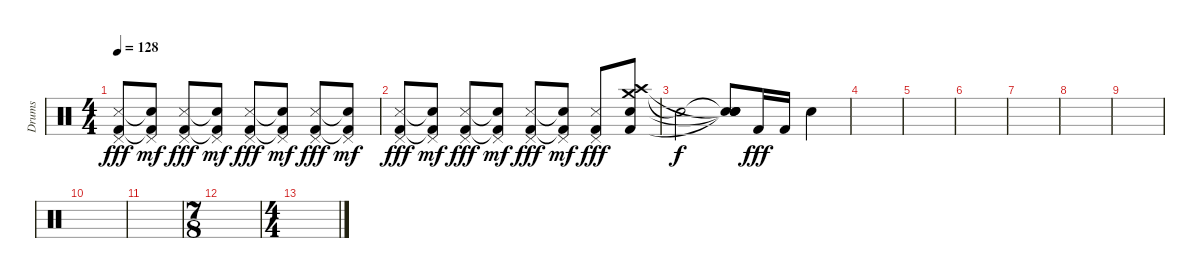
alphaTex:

\track ("Drums" "Drums") {instrument percussion}
\staff {score}
\articulation defaults
\ts (4 4)
\tempo 128
\clef neutral
\ks c
("Pedal Hi-Hat (hit)" "Snare (side stick) 3" "Kick (hit) 2").8{dy fff} ("Pedal Hi-Hat (hit)" "Snare (hit)"{t} "Kick (hit) 2"{t}).8{dy mf} ("Pedal Hi-Hat (hit)" "Snare (side stick) 3" "Kick (hit) 2").8{dy fff} ("Pedal Hi-Hat (hit)" "Snare (hit)"{t} "Kick (hit) 2"{t}).8{dy mf} ("Pedal Hi-Hat (hit)" "Snare (side stick) 3" "Kick (hit) 2").8{dy fff} ("Pedal Hi-Hat (hit)" "Snare (hit)"{t} "Kick (hit) 2"{t}).8{dy mf} ("Pedal Hi-Hat (hit)" "Snare (side stick) 3" "Kick (hit) 2").8{dy fff} ("Pedal Hi-Hat (hit)" "Snare (hit)"{t} "Kick (hit) 2"{t}).8{dy mf} |
("Pedal Hi-Hat (hit)" "Snare (side stick) 3" "Kick (hit) 2").8{dy fff} ("Pedal Hi-Hat (hit)" "Snare (hit)"{t} "Kick (hit) 2"{t}).8{dy mf} ("Pedal Hi-Hat (hit)" "Snare (side stick) 3" "Kick (hit) 2").8{dy fff} ("Pedal Hi-Hat (hit)" "Snare (hit)"{t} "Kick (hit) 2"{t}).8{dy mf} ("Pedal Hi-Hat (hit)" "Snare (side stick) 3" "Kick (hit) 2").8{dy fff} ("Pedal Hi-Hat (hit)" "Snare (hit)"{t} "Kick (hit) 2"{t}).8{dy mf} ("Pedal Hi-Hat (hit)" "Snare (side stick) 3" "Kick (hit) 2").8{dy fff} ("Crash medium (hit)" "Crash high (hit)" "Electric Snare (hit)" "Kick (hit) 2").8 |
"Snare (hit)"{t}.2{dy f} ("Snare (hit)"{t} "Snare (hit)"{t} "Snare (hit)"{t} "Snare (hit)"{t}).8 "Kick (hit) 2".16{dy fff} "Kick (hit) 2".16 "Electric Snare (hit)".4 |
|
|
|
|
|
|
|
|
\ts (7 8)
|
\ts (4 4)
